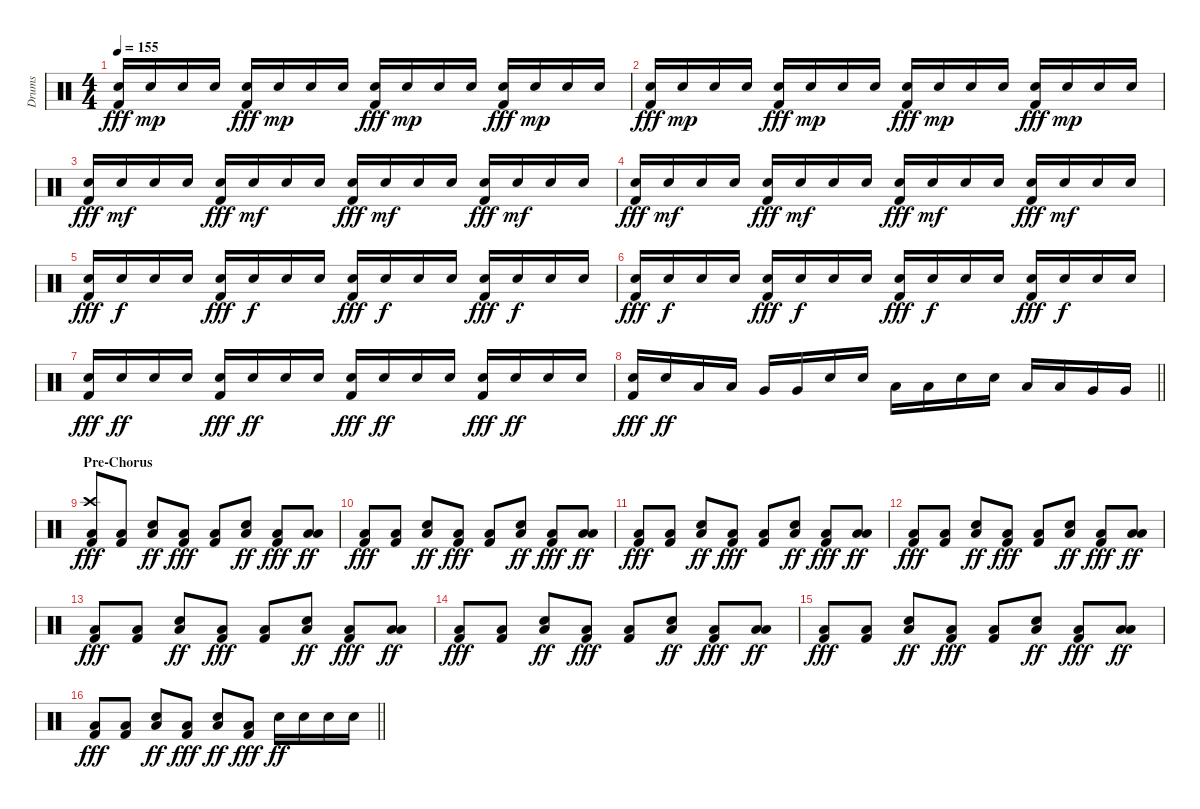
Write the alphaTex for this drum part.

\track ("Drums" "Drums") {instrument percussion}
\staff {score}
\articulation defaults
\ts (4 4)
\tempo 155
\clef neutral
\ks c
("Snare (hit) 2" "Kick (hit) 2").16{dy fff} "Snare (hit) 2".16{dy mp} "Snare (hit) 2".16 "Snare (hit) 2".16 ("Snare (hit) 2" "Kick (hit) 2").16{dy fff} "Snare (hit) 2".16{dy mp} "Snare (hit) 2".16 "Snare (hit) 2".16 ("Snare (hit) 2" "Kick (hit) 2").16{dy fff} "Snare (hit) 2".16{dy mp} "Snare (hit) 2".16 "Snare (hit) 2".16 ("Snare (hit) 2" "Kick (hit) 2").16{dy fff} "Snare (hit) 2".16{dy mp} "Snare (hit) 2".16 "Snare (hit) 2".16 |
("Snare (hit) 2" "Kick (hit) 2").16{dy fff} "Snare (hit) 2".16{dy mp} "Snare (hit) 2".16 "Snare (hit) 2".16 ("Snare (hit) 2" "Kick (hit) 2").16{dy fff} "Snare (hit) 2".16{dy mp} "Snare (hit) 2".16 "Snare (hit) 2".16 ("Snare (hit) 2" "Kick (hit) 2").16{dy fff} "Snare (hit) 2".16{dy mp} "Snare (hit) 2".16 "Snare (hit) 2".16 ("Snare (hit) 2" "Kick (hit) 2").16{dy fff} "Snare (hit) 2".16{dy mp} "Snare (hit) 2".16 "Snare (hit) 2".16 |
("Snare (hit) 2" "Kick (hit) 2").16{dy fff} "Snare (hit) 2".16{dy mf} "Snare (hit) 2".16 "Snare (hit) 2".16 ("Snare (hit) 2" "Kick (hit) 2").16{dy fff} "Snare (hit) 2".16{dy mf} "Snare (hit) 2".16 "Snare (hit) 2".16 ("Snare (hit) 2" "Kick (hit) 2").16{dy fff} "Snare (hit) 2".16{dy mf} "Snare (hit) 2".16 "Snare (hit) 2".16 ("Snare (hit) 2" "Kick (hit) 2").16{dy fff} "Snare (hit) 2".16{dy mf} "Snare (hit) 2".16 "Snare (hit) 2".16 |
("Snare (hit) 2" "Kick (hit) 2").16{dy fff} "Snare (hit) 2".16{dy mf} "Snare (hit) 2".16 "Snare (hit) 2".16 ("Snare (hit) 2" "Kick (hit) 2").16{dy fff} "Snare (hit) 2".16{dy mf} "Snare (hit) 2".16 "Snare (hit) 2".16 ("Snare (hit) 2" "Kick (hit) 2").16{dy fff} "Snare (hit) 2".16{dy mf} "Snare (hit) 2".16 "Snare (hit) 2".16 ("Snare (hit) 2" "Kick (hit) 2").16{dy fff} "Snare (hit) 2".16{dy mf} "Snare (hit) 2".16 "Snare (hit) 2".16 |
("Snare (hit) 2" "Kick (hit) 2").16{dy fff} "Snare (hit) 2".16{dy f} "Snare (hit) 2".16 "Snare (hit) 2".16 ("Snare (hit) 2" "Kick (hit) 2").16{dy fff} "Snare (hit) 2".16{dy f} "Snare (hit) 2".16 "Snare (hit) 2".16 ("Snare (hit) 2" "Kick (hit) 2").16{dy fff} "Snare (hit) 2".16{dy f} "Snare (hit) 2".16 "Snare (hit) 2".16 ("Snare (hit) 2" "Kick (hit) 2").16{dy fff} "Snare (hit) 2".16{dy f} "Snare (hit) 2".16 "Snare (hit) 2".16 |
("Snare (hit) 2" "Kick (hit) 2").16{dy fff} "Snare (hit) 2".16{dy f} "Snare (hit) 2".16 "Snare (hit) 2".16 ("Snare (hit) 2" "Kick (hit) 2").16{dy fff} "Snare (hit) 2".16{dy f} "Snare (hit) 2".16 "Snare (hit) 2".16 ("Snare (hit) 2" "Kick (hit) 2").16{dy fff} "Snare (hit) 2".16{dy f} "Snare (hit) 2".16 "Snare (hit) 2".16 ("Snare (hit) 2" "Kick (hit) 2").16{dy fff} "Snare (hit) 2".16{dy f} "Snare (hit) 2".16 "Snare (hit) 2".16 |
("Snare (hit) 2" "Kick (hit) 2").16{dy fff} "Snare (hit) 2".16{dy ff} "Snare (hit) 2".16 "Snare (hit) 2".16 ("Snare (hit) 2" "Kick (hit) 2").16{dy fff} "Snare (hit) 2".16{dy ff} "Snare (hit) 2".16 "Snare (hit) 2".16 ("Snare (hit) 2" "Kick (hit) 2").16{dy fff} "Snare (hit) 2".16{dy ff} "Snare (hit) 2".16 "Snare (hit) 2".16 ("Snare (hit) 2" "Kick (hit) 2").16{dy fff} "Snare (hit) 2".16{dy ff} "Snare (hit) 2".16 "Snare (hit) 2".16 |
\barLineRight lightlight
("Snare (hit) 2" "Kick (hit) 2").16{dy fff} "Snare (hit) 2".16{dy ff} "Low Tom (hit)".16 "Low Tom (hit)".16 "Very Low Tom (hit)".16 "Very Low Tom (hit)".16 "Snare (hit) 2".16 "Snare (hit) 2".16 "Low Tom (hit)".16 "Low Tom (hit)".16 "Snare (hit) 2".16 "Snare (hit) 2".16 "Low Tom (hit)".16 "Low Tom (hit)".16 "Very Low Tom (hit)".16 "Very Low Tom (hit)".16 |
\section ("" "Pre-Chorus")
("Crash high (hit)" "Low Floor Tom (hit)" "Kick (hit) 2").8{dy fff} ("Low Floor Tom (hit)" "Kick (hit) 2").8 ("Snare (hit) 2" "Low Floor Tom (hit)").8{dy ff} ("Low Floor Tom (hit)" "Kick (hit) 2").8{dy fff} ("Low Floor Tom (hit)" "Kick (hit) 2").8 ("Snare (hit) 2" "Low Floor Tom (hit)").8{dy ff} ("Low Floor Tom (hit)" "Kick (hit) 2").8{dy fff} ("Low Tom (hit)" "Low Floor Tom (hit)").8{dy ff} |
("Low Floor Tom (hit)" "Kick (hit) 2").8{dy fff} ("Low Floor Tom (hit)" "Kick (hit) 2").8 ("Snare (hit) 2" "Low Floor Tom (hit)").8{dy ff} ("Low Floor Tom (hit)" "Kick (hit) 2").8{dy fff} ("Low Floor Tom (hit)" "Kick (hit) 2").8 ("Snare (hit) 2" "Low Floor Tom (hit)").8{dy ff} ("Low Floor Tom (hit)" "Kick (hit) 2").8{dy fff} ("Low Tom (hit)" "Low Floor Tom (hit)").8{dy ff} |
("Low Floor Tom (hit)" "Kick (hit) 2").8{dy fff} ("Low Floor Tom (hit)" "Kick (hit) 2").8 ("Snare (hit) 2" "Low Floor Tom (hit)").8{dy ff} ("Low Floor Tom (hit)" "Kick (hit) 2").8{dy fff} ("Low Floor Tom (hit)" "Kick (hit) 2").8 ("Snare (hit) 2" "Low Floor Tom (hit)").8{dy ff} ("Low Floor Tom (hit)" "Kick (hit) 2").8{dy fff} ("Low Tom (hit)" "Low Floor Tom (hit)").8{dy ff} |
("Low Floor Tom (hit)" "Kick (hit) 2").8{dy fff} ("Low Floor Tom (hit)" "Kick (hit) 2").8 ("Snare (hit) 2" "Low Floor Tom (hit)").8{dy ff} ("Low Floor Tom (hit)" "Kick (hit) 2").8{dy fff} ("Low Floor Tom (hit)" "Kick (hit) 2").8 ("Snare (hit) 2" "Low Floor Tom (hit)").8{dy ff} ("Low Floor Tom (hit)" "Kick (hit) 2").8{dy fff} ("Low Tom (hit)" "Low Floor Tom (hit)").8{dy ff} |
("Low Floor Tom (hit)" "Kick (hit) 2").8{dy fff} ("Low Floor Tom (hit)" "Kick (hit) 2").8 ("Snare (hit) 2" "Low Floor Tom (hit)").8{dy ff} ("Low Floor Tom (hit)" "Kick (hit) 2").8{dy fff} ("Low Floor Tom (hit)" "Kick (hit) 2").8 ("Snare (hit) 2" "Low Floor Tom (hit)").8{dy ff} ("Low Floor Tom (hit)" "Kick (hit) 2").8{dy fff} ("Low Tom (hit)" "Low Floor Tom (hit)").8{dy ff} |
("Low Floor Tom (hit)" "Kick (hit) 2").8{dy fff} ("Low Floor Tom (hit)" "Kick (hit) 2").8 ("Snare (hit) 2" "Low Floor Tom (hit)").8{dy ff} ("Low Floor Tom (hit)" "Kick (hit) 2").8{dy fff} ("Low Floor Tom (hit)" "Kick (hit) 2").8 ("Snare (hit) 2" "Low Floor Tom (hit)").8{dy ff} ("Low Floor Tom (hit)" "Kick (hit) 2").8{dy fff} ("Low Tom (hit)" "Low Floor Tom (hit)").8{dy ff} |
("Low Floor Tom (hit)" "Kick (hit) 2").8{dy fff} ("Low Floor Tom (hit)" "Kick (hit) 2").8 ("Snare (hit) 2" "Low Floor Tom (hit)").8{dy ff} ("Low Floor Tom (hit)" "Kick (hit) 2").8{dy fff} ("Low Floor Tom (hit)" "Kick (hit) 2").8 ("Snare (hit) 2" "Low Floor Tom (hit)").8{dy ff} ("Low Floor Tom (hit)" "Kick (hit) 2").8{dy fff} ("Low Tom (hit)" "Low Floor Tom (hit)").8{dy ff} |
\barLineRight lightlight
("Low Floor Tom (hit)" "Kick (hit) 2").8{dy fff} ("Low Floor Tom (hit)" "Kick (hit) 2").8 ("Snare (hit) 2" "Low Floor Tom (hit)").8{dy ff} ("Low Floor Tom (hit)" "Kick (hit) 2").8{dy fff} ("Snare (hit) 2" "Low Floor Tom (hit)").8{dy ff} ("Low Floor Tom (hit)" "Kick (hit) 2").8{dy fff} "Snare (hit) 2".16{dy ff} "Snare (hit) 2".16 "Snare (hit) 2".16 "Snare (hit) 2".16
